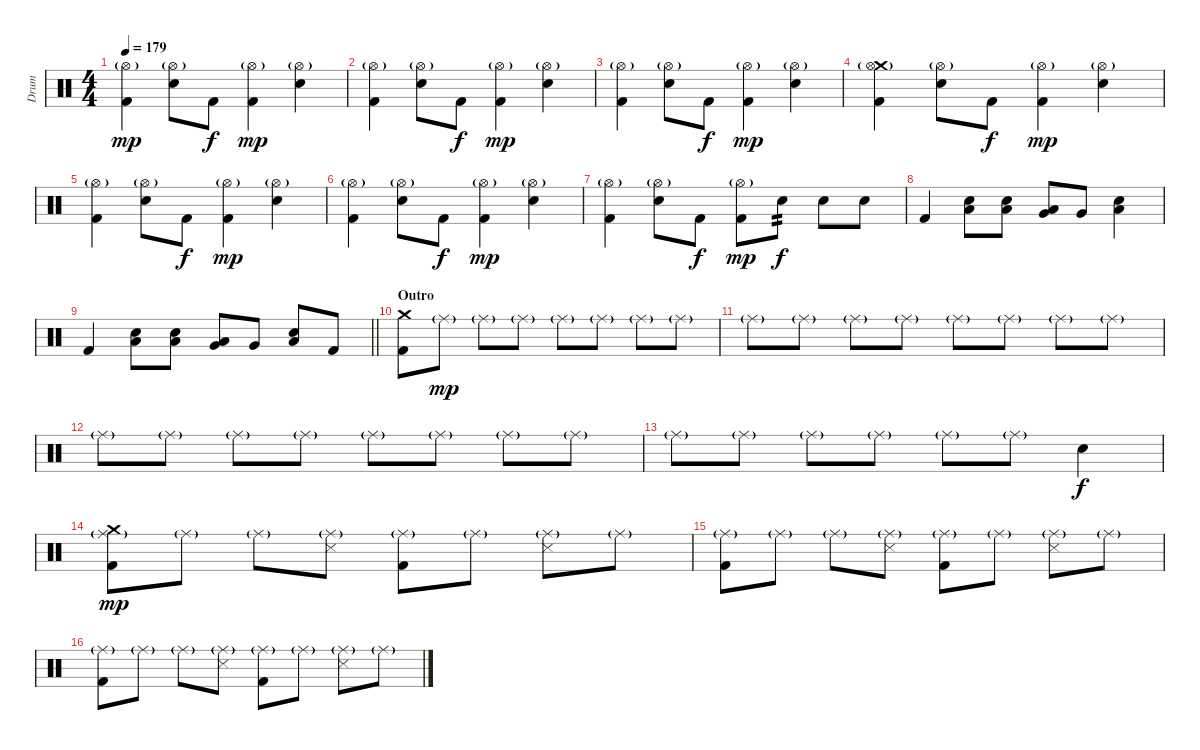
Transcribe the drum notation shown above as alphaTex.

\track ("Drum" "Drum") {instrument percussion}
\staff {score}
\articulation defaults
\ts (4 4)
\tempo 179
\clef neutral
\ks c
("Hi-Hat (open)"{g} "Kick (hit) 2").4{dy mp} ("Hi-Hat (open)"{g} "Electric Snare (hit)").8 "Kick (hit) 2".8{dy f} ("Hi-Hat (open)"{g} "Kick (hit) 2").4{dy mp} ("Hi-Hat (open)"{g} "Electric Snare (hit)").4 |
("Hi-Hat (open)"{g} "Kick (hit) 2").4 ("Hi-Hat (open)"{g} "Electric Snare (hit)").8 "Kick (hit) 2".8{dy f} ("Hi-Hat (open)"{g} "Kick (hit) 2").4{dy mp} ("Hi-Hat (open)"{g} "Electric Snare (hit)").4 |
("Hi-Hat (open)"{g} "Kick (hit) 2").4 ("Hi-Hat (open)"{g} "Electric Snare (hit)").8 "Kick (hit) 2".8{dy f} ("Hi-Hat (open)"{g} "Kick (hit) 2").4{dy mp} ("Hi-Hat (open)"{g} "Electric Snare (hit)").4 |
("Crash medium (hit)" "Hi-Hat (open)"{g} "Kick (hit) 2").4 ("Hi-Hat (open)"{g} "Electric Snare (hit)").8 "Kick (hit) 2".8{dy f} ("Hi-Hat (open)"{g} "Kick (hit) 2").4{dy mp} ("Hi-Hat (open)"{g} "Electric Snare (hit)").4 |
("Hi-Hat (open)"{g} "Kick (hit) 2").4 ("Hi-Hat (open)"{g} "Electric Snare (hit)").8 "Kick (hit) 2".8{dy f} ("Hi-Hat (open)"{g} "Kick (hit) 2").4{dy mp} ("Hi-Hat (open)"{g} "Electric Snare (hit)").4 |
("Hi-Hat (open)"{g} "Kick (hit) 2").4 ("Hi-Hat (open)"{g} "Electric Snare (hit)").8 "Kick (hit) 2".8{dy f} ("Hi-Hat (open)"{g} "Kick (hit) 2").4{dy mp} ("Hi-Hat (open)"{g} "Electric Snare (hit)").4 |
("Hi-Hat (open)"{g} "Kick (hit) 2").4 ("Hi-Hat (open)"{g} "Electric Snare (hit)").8 "Kick (hit) 2".8{dy f} ("Hi-Hat (open)"{g} "Kick (hit) 2").8{dy mp} "Electric Snare (hit)".8{tp 2 dy f} "Electric Snare (hit)".8 "Electric Snare (hit)".8 |
"Kick (hit) 2".4 ("Electric Snare (hit)" "Low Floor Tom (hit)").8 ("Electric Snare (hit)" "Low Floor Tom (hit)").8 ("Low Tom (hit)" "Very Low Tom (hit)").8 "Very Low Tom (hit)".8 ("Electric Snare (hit)" "Low Floor Tom (hit)").4 |
\barLineRight lightlight "Kick (hit) 2".4
("Electric Snare (hit)" "Low Floor Tom (hit)").8 ("Electric Snare (hit)" "Low Floor Tom (hit)").8 ("Low Tom (hit)" "Very Low Tom (hit)").8 "Very Low Tom (hit)".8 ("Electric Snare (hit)" "Low Floor Tom (hit)").8 "Kick (hit) 2".8 |
\section ("" "Outro")
("Crash medium (hit)" "Kick (hit) 2").8 "Ride (middle)"{g}.8{dy mp} "Ride (middle)"{g}.8 "Ride (middle)"{g}.8 "Ride (middle)"{g}.8 "Ride (middle)"{g}.8 "Ride (middle)"{g}.8 "Ride (middle)"{g}.8 |
"Ride (middle)"{g}.8 "Ride (middle)"{g}.8 "Ride (middle)"{g}.8 "Ride (middle)"{g}.8 "Ride (middle)"{g}.8 "Ride (middle)"{g}.8 "Ride (middle)"{g}.8 "Ride (middle)"{g}.8 |
"Ride (middle)"{g}.8 "Ride (middle)"{g}.8 "Ride (middle)"{g}.8 "Ride (middle)"{g}.8 "Ride (middle)"{g}.8 "Ride (middle)"{g}.8 "Ride (middle)"{g}.8 "Ride (middle)"{g}.8 |
"Ride (middle)"{g}.8 "Ride (middle)"{g}.8 "Ride (middle)"{g}.8 "Ride (middle)"{g}.8 "Ride (middle)"{g}.8 "Ride (middle)"{g}.8 "Electric Snare (hit)".4{dy f} |
("Crash medium (hit)" "Ride (middle)"{g} "Kick (hit) 2").8{dy mp} "Ride (middle)"{g}.8 "Ride (middle)"{g}.8 ("Ride (middle)"{g} "Snare (side stick) 3").8 ("Ride (middle)"{g} "Kick (hit) 2").8 "Ride (middle)"{g}.8 ("Ride (middle)"{g} "Snare (side stick) 3").8 "Ride (middle)"{g}.8 |
("Ride (middle)"{g} "Kick (hit) 2").8 "Ride (middle)"{g}.8 "Ride (middle)"{g}.8 ("Ride (middle)"{g} "Snare (side stick) 3").8 ("Ride (middle)"{g} "Kick (hit) 2").8 "Ride (middle)"{g}.8 ("Ride (middle)"{g} "Snare (side stick) 3").8 "Ride (middle)"{g}.8 |
("Ride (middle)"{g} "Kick (hit) 2").8 "Ride (middle)"{g}.8 "Ride (middle)"{g}.8 ("Ride (middle)"{g} "Snare (side stick) 3").8 ("Ride (middle)"{g} "Kick (hit) 2").8 "Ride (middle)"{g}.8 ("Ride (middle)"{g} "Snare (side stick) 3").8 "Ride (middle)"{g}.8
